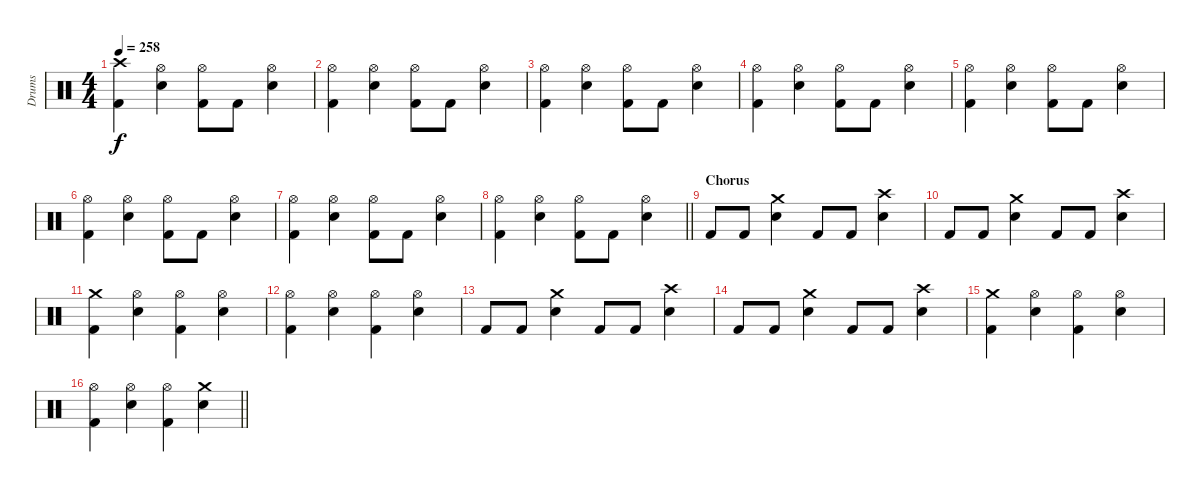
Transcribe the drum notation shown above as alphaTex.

\track ("Drums" "Drums") {instrument percussion}
\staff {score}
\articulation defaults
\ts (4 4)
\tempo 258
\clef neutral
\ks c
("Crash high (hit)" "Kick (hit) 2").4{dy f} ("Hi-Hat (open)" "Electric Snare (hit)").4 ("Hi-Hat (open)" "Kick (hit) 2").8 "Kick (hit) 2".8 ("Hi-Hat (open)" "Electric Snare (hit)").4 |
("Hi-Hat (open)" "Kick (hit) 2").4 ("Hi-Hat (open)" "Electric Snare (hit)").4 ("Hi-Hat (open)" "Kick (hit) 2").8 "Kick (hit) 2".8 ("Hi-Hat (open)" "Electric Snare (hit)").4 |
("Hi-Hat (open)" "Kick (hit) 2").4 ("Hi-Hat (open)" "Electric Snare (hit)").4 ("Hi-Hat (open)" "Kick (hit) 2").8 "Kick (hit) 2".8 ("Hi-Hat (open)" "Electric Snare (hit)").4 |
("Hi-Hat (open)" "Kick (hit) 2").4 ("Hi-Hat (open)" "Electric Snare (hit)").4 ("Hi-Hat (open)" "Kick (hit) 2").8 "Kick (hit) 2".8 ("Hi-Hat (open)" "Electric Snare (hit)").4 |
("Hi-Hat (open)" "Kick (hit) 2").4 ("Hi-Hat (open)" "Electric Snare (hit)").4 ("Hi-Hat (open)" "Kick (hit) 2").8 "Kick (hit) 2".8 ("Hi-Hat (open)" "Electric Snare (hit)").4 |
("Hi-Hat (open)" "Kick (hit) 2").4 ("Hi-Hat (open)" "Electric Snare (hit)").4 ("Hi-Hat (open)" "Kick (hit) 2").8 "Kick (hit) 2".8 ("Hi-Hat (open)" "Electric Snare (hit)").4 |
("Hi-Hat (open)" "Kick (hit) 2").4 ("Hi-Hat (open)" "Electric Snare (hit)").4 ("Hi-Hat (open)" "Kick (hit) 2").8 "Kick (hit) 2".8 ("Hi-Hat (open)" "Electric Snare (hit)").4 |
\barLineRight lightlight
("Hi-Hat (open)" "Kick (hit) 2").4 ("Hi-Hat (open)" "Electric Snare (hit)").4 ("Hi-Hat (open)" "Kick (hit) 2").8 "Kick (hit) 2".8 ("Hi-Hat (open)" "Electric Snare (hit)").4 |
\section ("" "Chorus")
"Kick (hit) 2".8 "Kick (hit) 2".8 ("Crash medium (hit)" "Electric Snare (hit)").4 "Kick (hit) 2".8 "Kick (hit) 2".8 ("Crash high (hit)" "Electric Snare (hit)").4 |
"Kick (hit) 2".8 "Kick (hit) 2".8 ("Crash medium (hit)" "Electric Snare (hit)").4 "Kick (hit) 2".8 "Kick (hit) 2".8 ("Crash high (hit)" "Electric Snare (hit)").4 |
("Crash medium (hit)" "Kick (hit) 2").4 ("Hi-Hat (open)" "Electric Snare (hit)").4 ("Hi-Hat (open)" "Kick (hit) 2").4 ("Hi-Hat (open)" "Electric Snare (hit)").4 |
("Hi-Hat (open)" "Kick (hit) 2").4 ("Hi-Hat (open)" "Electric Snare (hit)").4 ("Hi-Hat (open)" "Kick (hit) 2").4 ("Hi-Hat (open)" "Electric Snare (hit)").4 |
"Kick (hit) 2".8 "Kick (hit) 2".8 ("Crash medium (hit)" "Electric Snare (hit)").4 "Kick (hit) 2".8 "Kick (hit) 2".8 ("Crash high (hit)" "Electric Snare (hit)").4 |
"Kick (hit) 2".8 "Kick (hit) 2".8 ("Crash medium (hit)" "Electric Snare (hit)").4 "Kick (hit) 2".8 "Kick (hit) 2".8 ("Crash high (hit)" "Electric Snare (hit)").4 |
("Crash medium (hit)" "Kick (hit) 2").4 ("Hi-Hat (open)" "Electric Snare (hit)").4 ("Hi-Hat (open)" "Kick (hit) 2").4 ("Hi-Hat (open)" "Electric Snare (hit)").4 |
\barLineRight lightlight
("Hi-Hat (open)" "Kick (hit) 2").4 ("Hi-Hat (open)" "Electric Snare (hit)").4 ("Hi-Hat (open)" "Kick (hit) 2").4 ("Crash medium (hit)" "Electric Snare (hit)").4
